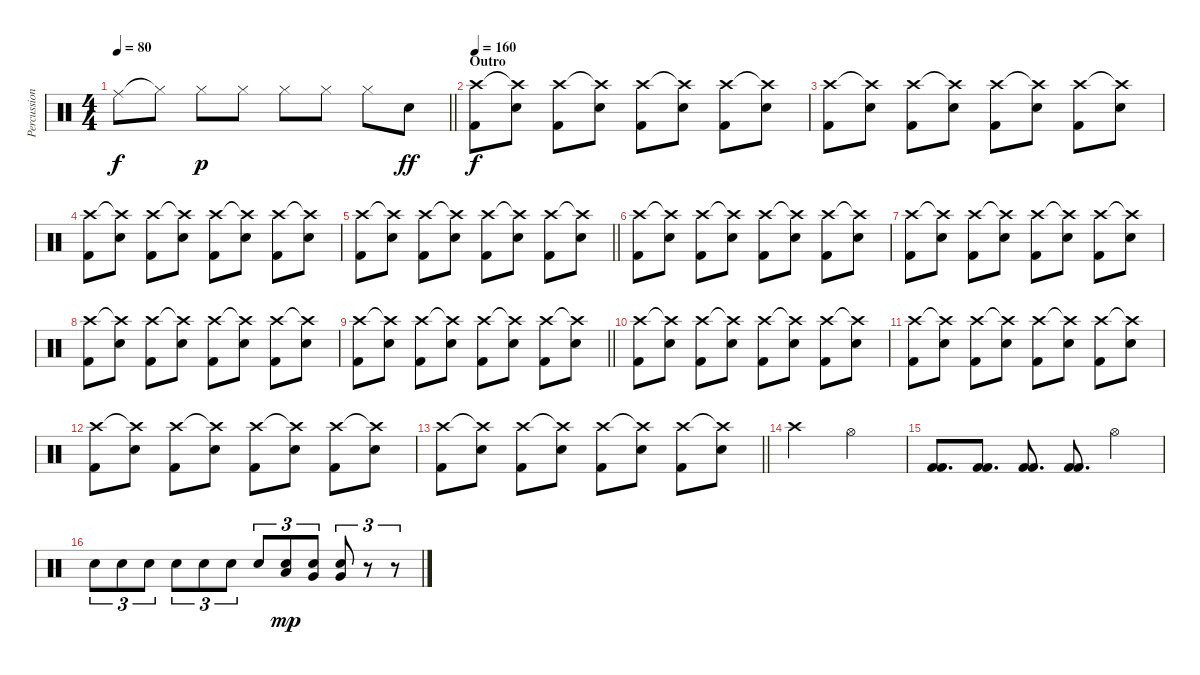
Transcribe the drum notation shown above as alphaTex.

\track ("Percussions" "Percussion") {instrument percussion}
\staff {score}
\articulation defaults
\ts (4 4)
\tempo 80
\clef neutral
\barLineRight lightlight
\ks c "Ride (middle)".8{dy f} "Hi-Hat (closed)"{t}.8 "Hi-Hat (closed)".8{dy p} "Hi-Hat (closed)".8 "Hi-Hat (closed)".8 "Hi-Hat (closed)".8 "Hi-Hat (closed)".8 "Electric Snare (hit)".8{dy ff}
|
\section ("" "Outro")
\tempo 160
("Crash high (hit)" "Kick (hit) 2").8{dy f} ("Crash high (hit)"{t} "Electric Snare (hit)").8 ("Crash high (hit)" "Kick (hit) 2").8 ("Crash high (hit)"{t} "Electric Snare (hit)").8 ("Crash high (hit)" "Kick (hit) 2").8 ("Crash high (hit)"{t} "Electric Snare (hit)").8 ("Crash high (hit)" "Kick (hit) 2").8 ("Crash high (hit)"{t} "Electric Snare (hit)").8 |
("Crash high (hit)" "Kick (hit) 2").8 ("Crash high (hit)"{t} "Electric Snare (hit)").8 ("Crash high (hit)" "Kick (hit) 2").8 ("Crash high (hit)"{t} "Electric Snare (hit)").8 ("Crash high (hit)" "Kick (hit) 2").8 ("Crash high (hit)"{t} "Electric Snare (hit)").8 ("Crash high (hit)" "Kick (hit) 2").8 ("Crash high (hit)"{t} "Electric Snare (hit)").8 |
("Crash high (hit)" "Kick (hit) 2").8 ("Crash high (hit)"{t} "Electric Snare (hit)").8 ("Crash high (hit)" "Kick (hit) 2").8 ("Crash high (hit)"{t} "Electric Snare (hit)").8 ("Crash high (hit)" "Kick (hit) 2").8 ("Crash high (hit)"{t} "Electric Snare (hit)").8 ("Crash high (hit)" "Kick (hit) 2").8 ("Crash high (hit)"{t} "Electric Snare (hit)").8 |
\barLineRight lightlight
("Crash high (hit)" "Kick (hit) 2").8 ("Crash high (hit)"{t} "Electric Snare (hit)").8 ("Crash high (hit)" "Kick (hit) 2").8 ("Crash high (hit)"{t} "Electric Snare (hit)").8 ("Crash high (hit)" "Kick (hit) 2").8 ("Crash high (hit)"{t} "Electric Snare (hit)").8 ("Crash high (hit)" "Kick (hit) 2").8 ("Crash high (hit)"{t} "Electric Snare (hit)").8 |
\section ("" "")
("Crash high (hit)" "Kick (hit) 2").8 ("Crash high (hit)"{t} "Electric Snare (hit)").8 ("Crash high (hit)" "Kick (hit) 2").8 ("Crash high (hit)"{t} "Electric Snare (hit)").8 ("Crash high (hit)" "Kick (hit) 2").8 ("Crash high (hit)"{t} "Electric Snare (hit)").8 ("Crash high (hit)" "Kick (hit) 2").8 ("Crash high (hit)"{t} "Electric Snare (hit)").8 |
("Crash high (hit)" "Kick (hit) 2").8 ("Crash high (hit)"{t} "Electric Snare (hit)").8 ("Crash high (hit)" "Kick (hit) 2").8 ("Crash high (hit)"{t} "Electric Snare (hit)").8 ("Crash high (hit)" "Kick (hit) 2").8 ("Crash high (hit)"{t} "Electric Snare (hit)").8 ("Crash high (hit)" "Kick (hit) 2").8 ("Crash high (hit)"{t} "Electric Snare (hit)").8 |
("Crash high (hit)" "Kick (hit) 2").8 ("Crash high (hit)"{t} "Electric Snare (hit)").8 ("Crash high (hit)" "Kick (hit) 2").8 ("Crash high (hit)"{t} "Electric Snare (hit)").8 ("Crash high (hit)" "Kick (hit) 2").8 ("Crash high (hit)"{t} "Electric Snare (hit)").8 ("Crash high (hit)" "Kick (hit) 2").8 ("Crash high (hit)"{t} "Electric Snare (hit)").8 |
\barLineRight lightlight
("Crash high (hit)" "Kick (hit) 2").8 ("Crash high (hit)"{t} "Electric Snare (hit)").8 ("Crash high (hit)" "Kick (hit) 2").8 ("Crash high (hit)"{t} "Electric Snare (hit)").8 ("Crash high (hit)" "Kick (hit) 2").8 ("Crash high (hit)"{t} "Electric Snare (hit)").8 ("Crash high (hit)" "Kick (hit) 2").8 ("Crash high (hit)"{t} "Electric Snare (hit)").8 |
\section ("" "")
("Crash high (hit)" "Kick (hit) 2").8 ("Crash high (hit)"{t} "Electric Snare (hit)").8 ("Crash high (hit)" "Kick (hit) 2").8 ("Crash high (hit)"{t} "Electric Snare (hit)").8 ("Crash high (hit)" "Kick (hit) 2").8 ("Crash high (hit)"{t} "Electric Snare (hit)").8 ("Crash high (hit)" "Kick (hit) 2").8 ("Crash high (hit)"{t} "Electric Snare (hit)").8 |
("Crash high (hit)" "Kick (hit) 2").8 ("Crash high (hit)"{t} "Electric Snare (hit)").8 ("Crash high (hit)" "Kick (hit) 2").8 ("Crash high (hit)"{t} "Electric Snare (hit)").8 ("Crash high (hit)" "Kick (hit) 2").8 ("Crash high (hit)"{t} "Electric Snare (hit)").8 ("Crash high (hit)" "Kick (hit) 2").8 ("Crash high (hit)"{t} "Electric Snare (hit)").8 |
("Crash high (hit)" "Kick (hit) 2").8 ("Crash high (hit)"{t} "Electric Snare (hit)").8 ("Crash high (hit)" "Kick (hit) 2").8 ("Crash high (hit)"{t} "Electric Snare (hit)").8 ("Crash high (hit)" "Kick (hit) 2").8 ("Crash high (hit)"{t} "Electric Snare (hit)").8 ("Crash high (hit)" "Kick (hit) 2").8 ("Crash high (hit)"{t} "Electric Snare (hit)").8 |
\barLineRight lightlight
("Crash high (hit)" "Kick (hit) 2").8 ("Crash high (hit)"{t} "Electric Snare (hit)").8 ("Crash high (hit)" "Kick (hit) 2").8 ("Crash high (hit)"{t} "Electric Snare (hit)").8 ("Crash high (hit)" "Kick (hit) 2").8 ("Crash high (hit)"{t} "Electric Snare (hit)").8 ("Crash high (hit)" "Kick (hit) 2").8 ("Crash high (hit)"{t} "Electric Snare (hit)").8 |
\section ("" "")
"Crash high (hit)".2 "Hi-Hat (open)".2 |
("Kick (hit) 2" "Kick (hit) 2").8{d} ("Kick (hit) 2" "Kick (hit) 2").8{d} ("Kick (hit) 2" "Kick (hit) 2").8{d} ("Kick (hit) 2" "Kick (hit) 2").8{d} "Hi-Hat (open)".4 |
"Electric Snare (hit)".8{tu (3 2)} "Electric Snare (hit)".8{tu (3 2)} "Electric Snare (hit)".8{tu (3 2)} "Electric Snare (hit)".8{tu (3 2)} "Electric Snare (hit)".8{tu (3 2)} "Electric Snare (hit)".8{tu (3 2)} "Electric Snare (hit)".8{tu (3 2)} ("Electric Snare (hit)" "Low Tom (hit)").8{tu (3 2) dy mp} ("Electric Snare (hit)" "Very Low Tom (hit)").8{tu (3 2)} ("Electric Snare (hit)" "Very Low Tom (hit)").8{tu (3 2)} r.8{tu (3 2)} r.8{tu (3 2)}
